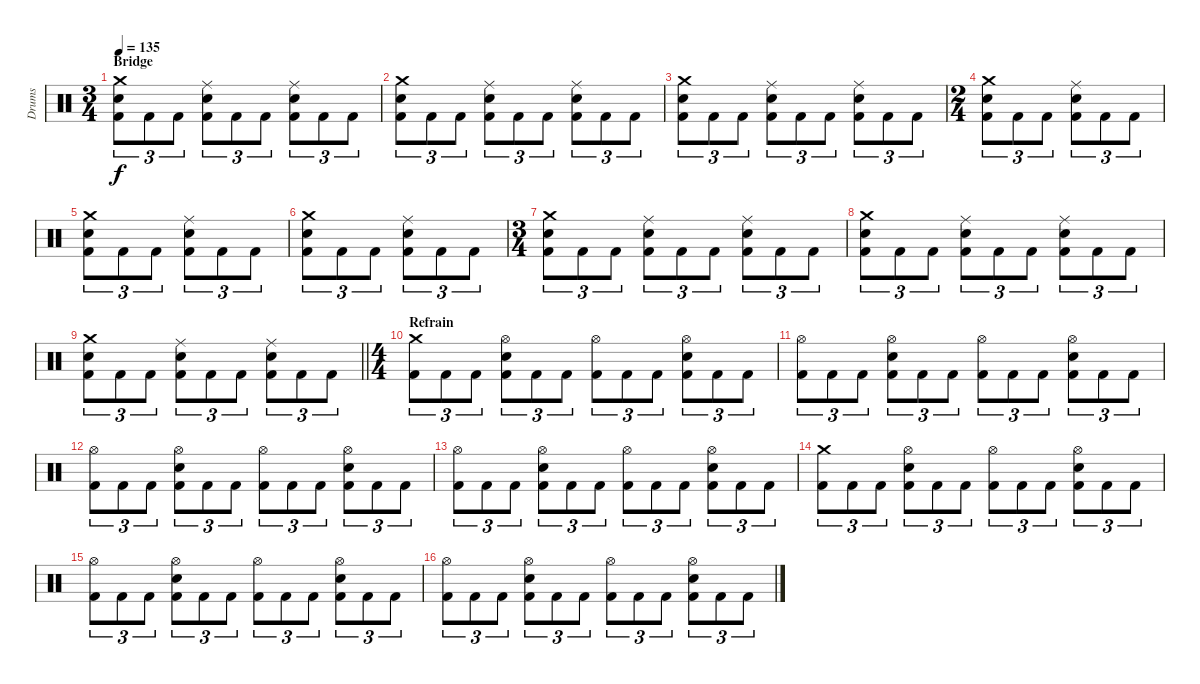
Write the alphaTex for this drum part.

\track ("Drums" "Drums") {instrument percussion}
\staff {score}
\articulation defaults
\ts (3 4)
\section ("" "Bridge")
\tempo 135
\clef neutral
\ks c
("Crash medium (hit)" "Snare (hit) 2" "Kick (hit) 2").8{tu (3 2) dy f} "Kick (hit) 2".8{tu (3 2)} "Kick (hit) 2".8{tu (3 2)} ("Ride (middle)" "Snare (hit) 2" "Kick (hit) 2").8{tu (3 2)} "Kick (hit) 2".8{tu (3 2)} "Kick (hit) 2".8{tu (3 2)} ("Ride (middle)" "Snare (hit) 2" "Kick (hit) 2").8{tu (3 2)} "Kick (hit) 2".8{tu (3 2)} "Kick (hit) 2".8{tu (3 2)} |
("Crash medium (hit)" "Snare (hit) 2" "Kick (hit) 2").8{tu (3 2)} "Kick (hit) 2".8{tu (3 2)} "Kick (hit) 2".8{tu (3 2)} ("Ride (middle)" "Snare (hit) 2" "Kick (hit) 2").8{tu (3 2)} "Kick (hit) 2".8{tu (3 2)} "Kick (hit) 2".8{tu (3 2)} ("Ride (middle)" "Snare (hit) 2" "Kick (hit) 2").8{tu (3 2)} "Kick (hit) 2".8{tu (3 2)} "Kick (hit) 2".8{tu (3 2)} |
("Crash medium (hit)" "Snare (hit) 2" "Kick (hit) 2").8{tu (3 2)} "Kick (hit) 2".8{tu (3 2)} "Kick (hit) 2".8{tu (3 2)} ("Ride (middle)" "Snare (hit) 2" "Kick (hit) 2").8{tu (3 2)} "Kick (hit) 2".8{tu (3 2)} "Kick (hit) 2".8{tu (3 2)} ("Ride (middle)" "Snare (hit) 2" "Kick (hit) 2").8{tu (3 2)} "Kick (hit) 2".8{tu (3 2)} "Kick (hit) 2".8{tu (3 2)} |
\ts (2 4)
("Crash medium (hit)" "Snare (hit) 2" "Kick (hit) 2").8{tu (3 2)} "Kick (hit) 2".8{tu (3 2)} "Kick (hit) 2".8{tu (3 2)} ("Ride (middle)" "Snare (hit) 2" "Kick (hit) 2").8{tu (3 2)} "Kick (hit) 2".8{tu (3 2)} "Kick (hit) 2".8{tu (3 2)} |
("Crash medium (hit)" "Snare (hit) 2" "Kick (hit) 2").8{tu (3 2)} "Kick (hit) 2".8{tu (3 2)} "Kick (hit) 2".8{tu (3 2)} ("Ride (middle)" "Snare (hit) 2" "Kick (hit) 2").8{tu (3 2)} "Kick (hit) 2".8{tu (3 2)} "Kick (hit) 2".8{tu (3 2)} |
("Crash medium (hit)" "Snare (hit) 2" "Kick (hit) 2").8{tu (3 2)} "Kick (hit) 2".8{tu (3 2)} "Kick (hit) 2".8{tu (3 2)} ("Ride (middle)" "Snare (hit) 2" "Kick (hit) 2").8{tu (3 2)} "Kick (hit) 2".8{tu (3 2)} "Kick (hit) 2".8{tu (3 2)} |
\ts (3 4)
("Crash medium (hit)" "Snare (hit) 2" "Kick (hit) 2").8{tu (3 2)} "Kick (hit) 2".8{tu (3 2)} "Kick (hit) 2".8{tu (3 2)} ("Ride (middle)" "Snare (hit) 2" "Kick (hit) 2").8{tu (3 2)} "Kick (hit) 2".8{tu (3 2)} "Kick (hit) 2".8{tu (3 2)} ("Ride (middle)" "Snare (hit) 2" "Kick (hit) 2").8{tu (3 2)} "Kick (hit) 2".8{tu (3 2)} "Kick (hit) 2".8{tu (3 2)} |
("Crash medium (hit)" "Snare (hit) 2" "Kick (hit) 2").8{tu (3 2)} "Kick (hit) 2".8{tu (3 2)} "Kick (hit) 2".8{tu (3 2)} ("Ride (middle)" "Snare (hit) 2" "Kick (hit) 2").8{tu (3 2)} "Kick (hit) 2".8{tu (3 2)} "Kick (hit) 2".8{tu (3 2)} ("Ride (middle)" "Snare (hit) 2" "Kick (hit) 2").8{tu (3 2)} "Kick (hit) 2".8{tu (3 2)} "Kick (hit) 2".8{tu (3 2)} |
\barLineRight lightlight
("Crash medium (hit)" "Snare (hit) 2" "Kick (hit) 2").8{tu (3 2)} "Kick (hit) 2".8{tu (3 2)} "Kick (hit) 2".8{tu (3 2)} ("Ride (middle)" "Snare (hit) 2" "Kick (hit) 2").8{tu (3 2)} "Kick (hit) 2".8{tu (3 2)} "Kick (hit) 2".8{tu (3 2)} ("Ride (middle)" "Snare (hit) 2" "Kick (hit) 2").8{tu (3 2)} "Kick (hit) 2".8{tu (3 2)} "Kick (hit) 2".8{tu (3 2)} |
\ts (4 4)
\section ("" "Refrain")
("Crash medium (hit)" "Kick (hit) 2").8{tu (3 2)} "Kick (hit) 2".8{tu (3 2)} "Kick (hit) 2".8{tu (3 2)} ("Hi-Hat (open)" "Snare (hit) 2" "Kick (hit) 2").8{tu (3 2)} "Kick (hit) 2".8{tu (3 2)} "Kick (hit) 2".8{tu (3 2)} ("Hi-Hat (open)" "Kick (hit) 2").8{tu (3 2)} "Kick (hit) 2".8{tu (3 2)} "Kick (hit) 2".8{tu (3 2)} ("Hi-Hat (open)" "Snare (hit) 2" "Kick (hit) 2").8{tu (3 2)} "Kick (hit) 2".8{tu (3 2)} "Kick (hit) 2".8{tu (3 2)} |
("Hi-Hat (open)" "Kick (hit) 2").8{tu (3 2)} "Kick (hit) 2".8{tu (3 2)} "Kick (hit) 2".8{tu (3 2)} ("Hi-Hat (open)" "Snare (hit) 2" "Kick (hit) 2").8{tu (3 2)} "Kick (hit) 2".8{tu (3 2)} "Kick (hit) 2".8{tu (3 2)} ("Hi-Hat (open)" "Kick (hit) 2").8{tu (3 2)} "Kick (hit) 2".8{tu (3 2)} "Kick (hit) 2".8{tu (3 2)} ("Hi-Hat (open)" "Snare (hit) 2" "Kick (hit) 2").8{tu (3 2)} "Kick (hit) 2".8{tu (3 2)} "Kick (hit) 2".8{tu (3 2)} |
("Hi-Hat (open)" "Kick (hit) 2").8{tu (3 2)} "Kick (hit) 2".8{tu (3 2)} "Kick (hit) 2".8{tu (3 2)} ("Hi-Hat (open)" "Snare (hit) 2" "Kick (hit) 2").8{tu (3 2)} "Kick (hit) 2".8{tu (3 2)} "Kick (hit) 2".8{tu (3 2)} ("Hi-Hat (open)" "Kick (hit) 2").8{tu (3 2)} "Kick (hit) 2".8{tu (3 2)} "Kick (hit) 2".8{tu (3 2)} ("Hi-Hat (open)" "Snare (hit) 2" "Kick (hit) 2").8{tu (3 2)} "Kick (hit) 2".8{tu (3 2)} "Kick (hit) 2".8{tu (3 2)} |
("Hi-Hat (open)" "Kick (hit) 2").8{tu (3 2)} "Kick (hit) 2".8{tu (3 2)} "Kick (hit) 2".8{tu (3 2)} ("Hi-Hat (open)" "Snare (hit) 2" "Kick (hit) 2").8{tu (3 2)} "Kick (hit) 2".8{tu (3 2)} "Kick (hit) 2".8{tu (3 2)} ("Hi-Hat (open)" "Kick (hit) 2").8{tu (3 2)} "Kick (hit) 2".8{tu (3 2)} "Kick (hit) 2".8{tu (3 2)} ("Hi-Hat (open)" "Snare (hit) 2" "Kick (hit) 2").8{tu (3 2)} "Kick (hit) 2".8{tu (3 2)} "Kick (hit) 2".8{tu (3 2)} |
("Crash medium (hit)" "Kick (hit) 2").8{tu (3 2)} "Kick (hit) 2".8{tu (3 2)} "Kick (hit) 2".8{tu (3 2)} ("Hi-Hat (open)" "Snare (hit) 2" "Kick (hit) 2").8{tu (3 2)} "Kick (hit) 2".8{tu (3 2)} "Kick (hit) 2".8{tu (3 2)} ("Hi-Hat (open)" "Kick (hit) 2").8{tu (3 2)} "Kick (hit) 2".8{tu (3 2)} "Kick (hit) 2".8{tu (3 2)} ("Hi-Hat (open)" "Snare (hit) 2" "Kick (hit) 2").8{tu (3 2)} "Kick (hit) 2".8{tu (3 2)} "Kick (hit) 2".8{tu (3 2)} |
("Hi-Hat (open)" "Kick (hit) 2").8{tu (3 2)} "Kick (hit) 2".8{tu (3 2)} "Kick (hit) 2".8{tu (3 2)} ("Hi-Hat (open)" "Snare (hit) 2" "Kick (hit) 2").8{tu (3 2)} "Kick (hit) 2".8{tu (3 2)} "Kick (hit) 2".8{tu (3 2)} ("Hi-Hat (open)" "Kick (hit) 2").8{tu (3 2)} "Kick (hit) 2".8{tu (3 2)} "Kick (hit) 2".8{tu (3 2)} ("Hi-Hat (open)" "Snare (hit) 2" "Kick (hit) 2").8{tu (3 2)} "Kick (hit) 2".8{tu (3 2)} "Kick (hit) 2".8{tu (3 2)} |
("Hi-Hat (open)" "Kick (hit) 2").8{tu (3 2)} "Kick (hit) 2".8{tu (3 2)} "Kick (hit) 2".8{tu (3 2)} ("Hi-Hat (open)" "Snare (hit) 2" "Kick (hit) 2").8{tu (3 2)} "Kick (hit) 2".8{tu (3 2)} "Kick (hit) 2".8{tu (3 2)} ("Hi-Hat (open)" "Kick (hit) 2").8{tu (3 2)} "Kick (hit) 2".8{tu (3 2)} "Kick (hit) 2".8{tu (3 2)} ("Hi-Hat (open)" "Snare (hit) 2" "Kick (hit) 2").8{tu (3 2)} "Kick (hit) 2".8{tu (3 2)} "Kick (hit) 2".8{tu (3 2)}
